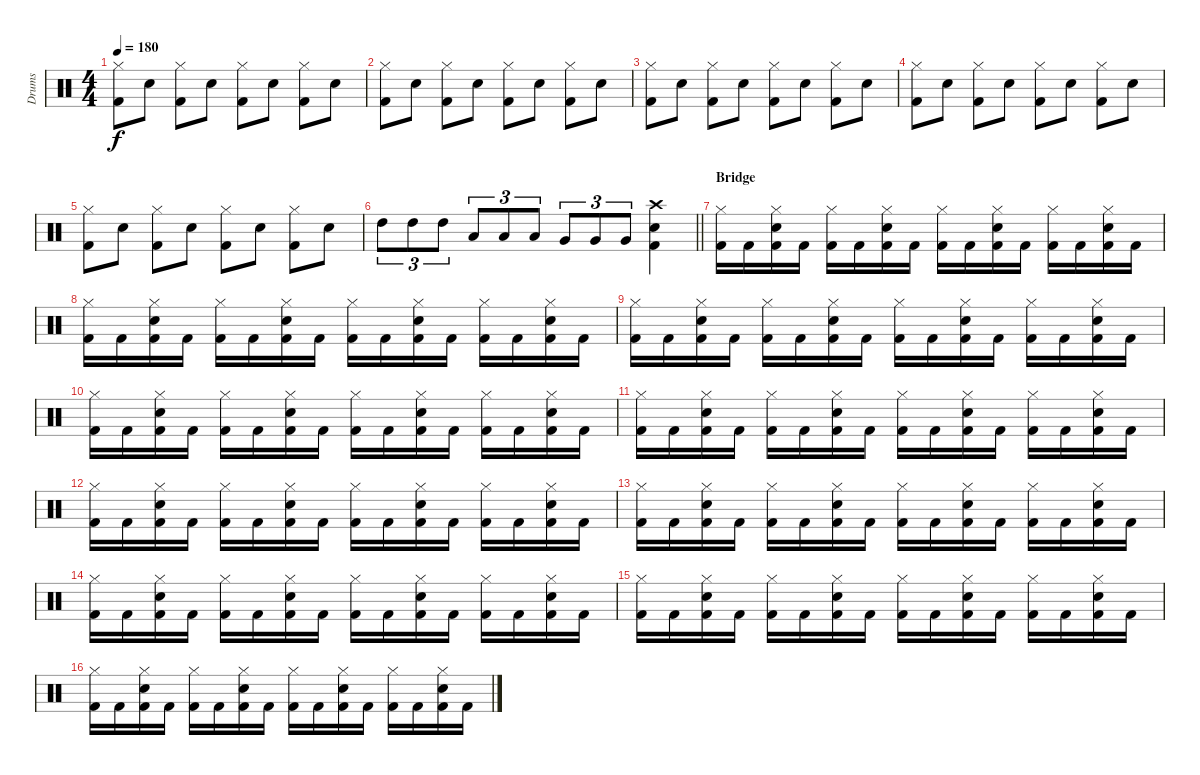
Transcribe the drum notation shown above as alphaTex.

\track ("Drums" "Drums") {instrument percussion}
\staff {score}
\articulation defaults
\ts (4 4)
\tempo 180
\clef neutral
\ks c
("Hi-Hat (closed)" "Kick (hit) 2").8{dy f} "Electric Snare (hit)".8 ("Hi-Hat (closed)" "Kick (hit) 2").8 "Electric Snare (hit)".8 ("Hi-Hat (closed)" "Kick (hit) 2").8 "Electric Snare (hit)".8 ("Hi-Hat (closed)" "Kick (hit) 2").8 "Electric Snare (hit)".8 |
("Hi-Hat (closed)" "Kick (hit) 2").8 "Electric Snare (hit)".8 ("Hi-Hat (closed)" "Kick (hit) 2").8 "Electric Snare (hit)".8 ("Hi-Hat (closed)" "Kick (hit) 2").8 "Electric Snare (hit)".8 ("Hi-Hat (closed)" "Kick (hit) 2").8 "Electric Snare (hit)".8 |
("Hi-Hat (closed)" "Kick (hit) 2").8 "Electric Snare (hit)".8 ("Hi-Hat (closed)" "Kick (hit) 2").8 "Electric Snare (hit)".8 ("Hi-Hat (closed)" "Kick (hit) 2").8 "Electric Snare (hit)".8 ("Hi-Hat (closed)" "Kick (hit) 2").8 "Electric Snare (hit)".8 |
("Hi-Hat (closed)" "Kick (hit) 2").8 "Electric Snare (hit)".8 ("Hi-Hat (closed)" "Kick (hit) 2").8 "Electric Snare (hit)".8 ("Hi-Hat (closed)" "Kick (hit) 2").8 "Electric Snare (hit)".8 ("Hi-Hat (closed)" "Kick (hit) 2").8 "Electric Snare (hit)".8 |
("Hi-Hat (closed)" "Kick (hit) 2").8 "Electric Snare (hit)".8 ("Hi-Hat (closed)" "Kick (hit) 2").8 "Electric Snare (hit)".8 ("Hi-Hat (closed)" "Kick (hit) 2").8 "Electric Snare (hit)".8 ("Hi-Hat (closed)" "Kick (hit) 2").8 "Electric Snare (hit)".8 |
\barLineRight lightlight "High Tom (hit)".8{tu (3 2)} "High Tom (hit)".8{tu (3 2)} "High Tom (hit)".8{tu (3 2)} "Low Tom (hit)".8{tu (3 2)} "Low Tom (hit)".8{tu (3 2)} "Low Tom (hit)".8{tu (3 2)} "Very Low Tom (hit)".8{tu (3 2)} "Very Low Tom (hit)".8{tu (3 2)} "Very Low Tom (hit)".8{tu (3 2)}
("Crash high (hit)" "Electric Snare (hit)" "Kick (hit) 2").4 |
\section ("" "Bridge")
("Hi-Hat (closed)" "Kick (hit) 2").16 "Kick (hit) 2".16 ("Hi-Hat (closed)" "Electric Snare (hit)" "Kick (hit) 2").16 "Kick (hit) 2".16 ("Hi-Hat (closed)" "Kick (hit) 2").16 "Kick (hit) 2".16 ("Hi-Hat (closed)" "Electric Snare (hit)" "Kick (hit) 2").16 "Kick (hit) 2".16 ("Hi-Hat (closed)" "Kick (hit) 2").16 "Kick (hit) 2".16 ("Hi-Hat (closed)" "Electric Snare (hit)" "Kick (hit) 2").16 "Kick (hit) 2".16 ("Hi-Hat (closed)" "Kick (hit) 2").16 "Kick (hit) 2".16 ("Hi-Hat (closed)" "Electric Snare (hit)" "Kick (hit) 2").16 "Kick (hit) 2".16 |
("Hi-Hat (closed)" "Kick (hit) 2").16 "Kick (hit) 2".16 ("Hi-Hat (closed)" "Electric Snare (hit)" "Kick (hit) 2").16 "Kick (hit) 2".16 ("Hi-Hat (closed)" "Kick (hit) 2").16 "Kick (hit) 2".16 ("Hi-Hat (closed)" "Electric Snare (hit)" "Kick (hit) 2").16 "Kick (hit) 2".16 ("Hi-Hat (closed)" "Kick (hit) 2").16 "Kick (hit) 2".16 ("Hi-Hat (closed)" "Electric Snare (hit)" "Kick (hit) 2").16 "Kick (hit) 2".16 ("Hi-Hat (closed)" "Kick (hit) 2").16 "Kick (hit) 2".16 ("Hi-Hat (closed)" "Electric Snare (hit)" "Kick (hit) 2").16 "Kick (hit) 2".16 |
("Hi-Hat (closed)" "Kick (hit) 2").16 "Kick (hit) 2".16 ("Hi-Hat (closed)" "Electric Snare (hit)" "Kick (hit) 2").16 "Kick (hit) 2".16 ("Hi-Hat (closed)" "Kick (hit) 2").16 "Kick (hit) 2".16 ("Hi-Hat (closed)" "Electric Snare (hit)" "Kick (hit) 2").16 "Kick (hit) 2".16 ("Hi-Hat (closed)" "Kick (hit) 2").16 "Kick (hit) 2".16 ("Hi-Hat (closed)" "Electric Snare (hit)" "Kick (hit) 2").16 "Kick (hit) 2".16 ("Hi-Hat (closed)" "Kick (hit) 2").16 "Kick (hit) 2".16 ("Hi-Hat (closed)" "Electric Snare (hit)" "Kick (hit) 2").16 "Kick (hit) 2".16 |
("Hi-Hat (closed)" "Kick (hit) 2").16 "Kick (hit) 2".16 ("Hi-Hat (closed)" "Electric Snare (hit)" "Kick (hit) 2").16 "Kick (hit) 2".16 ("Hi-Hat (closed)" "Kick (hit) 2").16 "Kick (hit) 2".16 ("Hi-Hat (closed)" "Electric Snare (hit)" "Kick (hit) 2").16 "Kick (hit) 2".16 ("Hi-Hat (closed)" "Kick (hit) 2").16 "Kick (hit) 2".16 ("Hi-Hat (closed)" "Electric Snare (hit)" "Kick (hit) 2").16 "Kick (hit) 2".16 ("Hi-Hat (closed)" "Kick (hit) 2").16 "Kick (hit) 2".16 ("Hi-Hat (closed)" "Electric Snare (hit)" "Kick (hit) 2").16 "Kick (hit) 2".16 |
("Hi-Hat (closed)" "Kick (hit) 2").16 "Kick (hit) 2".16 ("Hi-Hat (closed)" "Electric Snare (hit)" "Kick (hit) 2").16 "Kick (hit) 2".16 ("Hi-Hat (closed)" "Kick (hit) 2").16 "Kick (hit) 2".16 ("Hi-Hat (closed)" "Electric Snare (hit)" "Kick (hit) 2").16 "Kick (hit) 2".16 ("Hi-Hat (closed)" "Kick (hit) 2").16 "Kick (hit) 2".16 ("Hi-Hat (closed)" "Electric Snare (hit)" "Kick (hit) 2").16 "Kick (hit) 2".16 ("Hi-Hat (closed)" "Kick (hit) 2").16 "Kick (hit) 2".16 ("Hi-Hat (closed)" "Electric Snare (hit)" "Kick (hit) 2").16 "Kick (hit) 2".16 |
("Hi-Hat (closed)" "Kick (hit) 2").16 "Kick (hit) 2".16 ("Hi-Hat (closed)" "Electric Snare (hit)" "Kick (hit) 2").16 "Kick (hit) 2".16 ("Hi-Hat (closed)" "Kick (hit) 2").16 "Kick (hit) 2".16 ("Hi-Hat (closed)" "Electric Snare (hit)" "Kick (hit) 2").16 "Kick (hit) 2".16 ("Hi-Hat (closed)" "Kick (hit) 2").16 "Kick (hit) 2".16 ("Hi-Hat (closed)" "Electric Snare (hit)" "Kick (hit) 2").16 "Kick (hit) 2".16 ("Hi-Hat (closed)" "Kick (hit) 2").16 "Kick (hit) 2".16 ("Hi-Hat (closed)" "Electric Snare (hit)" "Kick (hit) 2").16 "Kick (hit) 2".16 |
("Hi-Hat (closed)" "Kick (hit) 2").16 "Kick (hit) 2".16 ("Hi-Hat (closed)" "Electric Snare (hit)" "Kick (hit) 2").16 "Kick (hit) 2".16 ("Hi-Hat (closed)" "Kick (hit) 2").16 "Kick (hit) 2".16 ("Hi-Hat (closed)" "Electric Snare (hit)" "Kick (hit) 2").16 "Kick (hit) 2".16 ("Hi-Hat (closed)" "Kick (hit) 2").16 "Kick (hit) 2".16 ("Hi-Hat (closed)" "Electric Snare (hit)" "Kick (hit) 2").16 "Kick (hit) 2".16 ("Hi-Hat (closed)" "Kick (hit) 2").16 "Kick (hit) 2".16 ("Hi-Hat (closed)" "Electric Snare (hit)" "Kick (hit) 2").16 "Kick (hit) 2".16 |
("Hi-Hat (closed)" "Kick (hit) 2").16 "Kick (hit) 2".16 ("Hi-Hat (closed)" "Electric Snare (hit)" "Kick (hit) 2").16 "Kick (hit) 2".16 ("Hi-Hat (closed)" "Kick (hit) 2").16 "Kick (hit) 2".16 ("Hi-Hat (closed)" "Electric Snare (hit)" "Kick (hit) 2").16 "Kick (hit) 2".16 ("Hi-Hat (closed)" "Kick (hit) 2").16 "Kick (hit) 2".16 ("Hi-Hat (closed)" "Electric Snare (hit)" "Kick (hit) 2").16 "Kick (hit) 2".16 ("Hi-Hat (closed)" "Kick (hit) 2").16 "Kick (hit) 2".16 ("Hi-Hat (closed)" "Electric Snare (hit)" "Kick (hit) 2").16 "Kick (hit) 2".16 |
("Hi-Hat (closed)" "Kick (hit) 2").16 "Kick (hit) 2".16 ("Hi-Hat (closed)" "Electric Snare (hit)" "Kick (hit) 2").16 "Kick (hit) 2".16 ("Hi-Hat (closed)" "Kick (hit) 2").16 "Kick (hit) 2".16 ("Hi-Hat (closed)" "Electric Snare (hit)" "Kick (hit) 2").16 "Kick (hit) 2".16 ("Hi-Hat (closed)" "Kick (hit) 2").16 "Kick (hit) 2".16 ("Hi-Hat (closed)" "Electric Snare (hit)" "Kick (hit) 2").16 "Kick (hit) 2".16 ("Hi-Hat (closed)" "Kick (hit) 2").16 "Kick (hit) 2".16 ("Hi-Hat (closed)" "Electric Snare (hit)" "Kick (hit) 2").16 "Kick (hit) 2".16 |
("Hi-Hat (closed)" "Kick (hit) 2").16 "Kick (hit) 2".16 ("Hi-Hat (closed)" "Electric Snare (hit)" "Kick (hit) 2").16 "Kick (hit) 2".16 ("Hi-Hat (closed)" "Kick (hit) 2").16 "Kick (hit) 2".16 ("Hi-Hat (closed)" "Electric Snare (hit)" "Kick (hit) 2").16 "Kick (hit) 2".16 ("Hi-Hat (closed)" "Kick (hit) 2").16 "Kick (hit) 2".16 ("Hi-Hat (closed)" "Electric Snare (hit)" "Kick (hit) 2").16 "Kick (hit) 2".16 ("Hi-Hat (closed)" "Kick (hit) 2").16 "Kick (hit) 2".16 ("Hi-Hat (closed)" "Electric Snare (hit)" "Kick (hit) 2").16 "Kick (hit) 2".16
